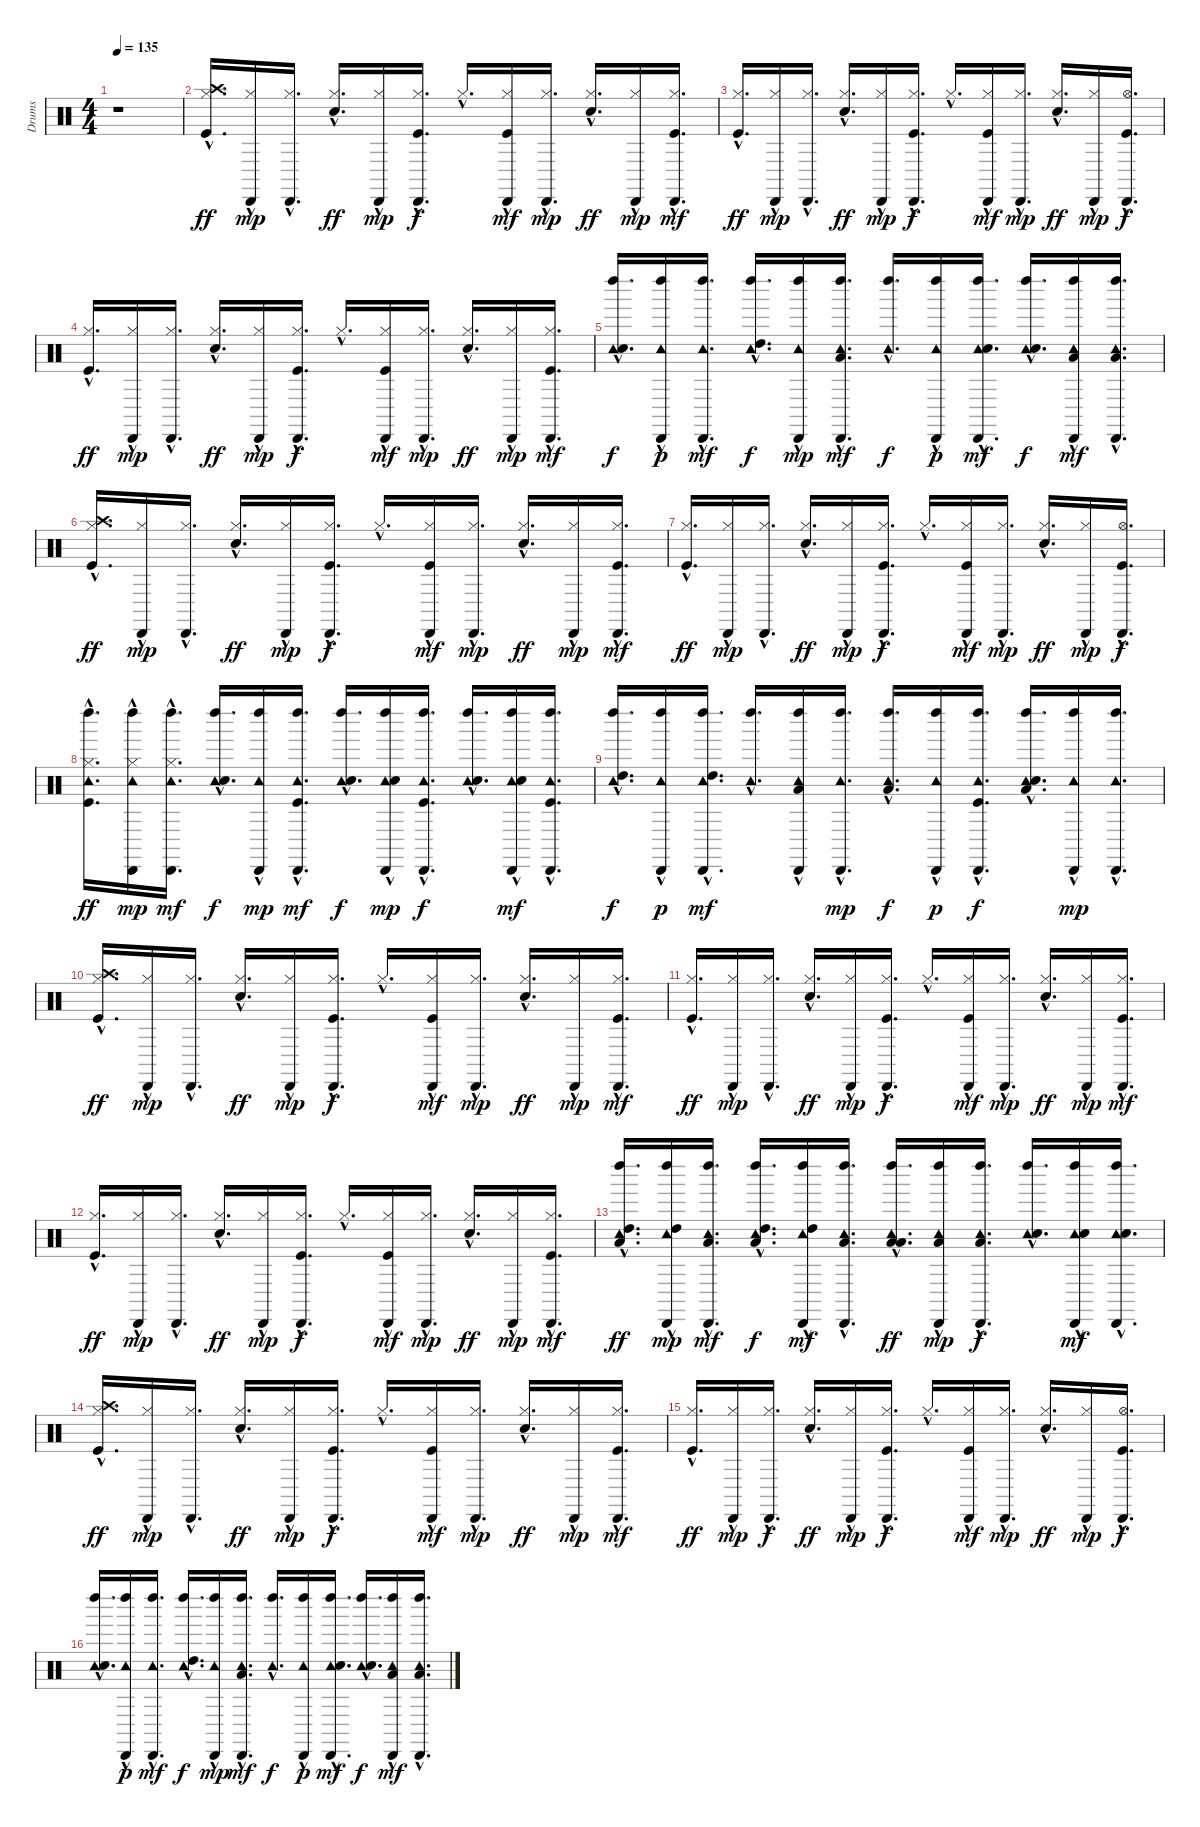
\track ("Drums" "Drums") {instrument percussion}
\staff {score}
\articulation defaults
\ts (4 4)
\tempo 135
\clef neutral
\ks c
r.1{dy ff} |
("Crash high (hit)"{hac} "Hi-Hat (closed)"{hac} "Kick (hit)"{hac}).16{d} ("Cabasa (hit)"{hac} "Hi-Hat (closed)"{hac}).16{dy mp} ("Cabasa (hit)"{hac} "Hi-Hat (closed)"{hac}).16{d} ("Hi-Hat (closed)"{hac} "Snare (hit) 2"{hac}).16{d dy ff} ("Cabasa (hit)"{hac} "Hi-Hat (closed)"{hac}).16{dy mp} ("Cabasa (hit)"{hac} "Hi-Hat (closed)"{hac} "Kick (hit)"{hac}).16{d dy f} "Hi-Hat (closed)"{hac}.16{d} ("Cabasa (hit)"{hac} "Hi-Hat (closed)"{hac} "Kick (hit)"{hac}).16{dy mf} ("Cabasa (hit)"{hac} "Hi-Hat (closed)"{hac}).16{d dy mp} ("Hi-Hat (closed)"{hac} "Snare (hit) 2"{hac}).16{d dy ff} ("Cabasa (hit)"{hac} "Hi-Hat (closed)"{hac}).16{dy mp} ("Cabasa (hit)"{hac} "Hi-Hat (closed)"{hac} "Kick (hit)"{hac}).16{d dy mf} |
("Hi-Hat (closed)"{hac} "Kick (hit)"{hac}).16{d dy ff} ("Cabasa (hit)"{hac} "Hi-Hat (closed)"{hac}).16{dy mp} ("Cabasa (hit)"{hac} "Hi-Hat (closed)"{hac}).16{d} ("Hi-Hat (closed)"{hac} "Snare (hit) 2"{hac}).16{d dy ff} ("Cabasa (hit)"{hac} "Hi-Hat (closed)"{hac}).16{dy mp} ("Cabasa (hit)"{hac} "Hi-Hat (closed)"{hac} "Kick (hit)"{hac}).16{d dy f} "Hi-Hat (closed)"{hac}.16{d} ("Cabasa (hit)"{hac} "Hi-Hat (closed)"{hac} "Kick (hit)"{hac}).16{dy mf} ("Cabasa (hit)"{hac} "Hi-Hat (closed)"{hac}).16{d dy mp} ("Hi-Hat (closed)"{hac} "Snare (hit) 2"{hac}).16{d dy ff} ("Cabasa (hit)"{hac} "Hi-Hat (closed)"{hac}).16{dy mp} ("Cabasa (hit)"{hac} "Hi-Hat (open)"{hac} "Kick (hit)"{hac}).16{d dy f} |
("Hi-Hat (closed)"{hac} "Kick (hit)"{hac}).16{d dy ff} ("Cabasa (hit)"{hac} "Hi-Hat (closed)"{hac}).16{dy mp} ("Cabasa (hit)"{hac} "Hi-Hat (closed)"{hac}).16{d} ("Hi-Hat (closed)"{hac} "Snare (hit) 2"{hac}).16{d dy ff} ("Cabasa (hit)"{hac} "Hi-Hat (closed)"{hac}).16{dy mp} ("Cabasa (hit)"{hac} "Hi-Hat (closed)"{hac} "Kick (hit)"{hac}).16{d dy f} "Hi-Hat (closed)"{hac}.16{d} ("Cabasa (hit)"{hac} "Hi-Hat (closed)"{hac} "Kick (hit)"{hac}).16{dy mf} ("Cabasa (hit)"{hac} "Hi-Hat (closed)"{hac}).16{d dy mp} ("Hi-Hat (closed)"{hac} "Snare (hit) 2"{hac}).16{d dy ff} ("Cabasa (hit)"{hac} "Hi-Hat (closed)"{hac}).16{dy mp} ("Cabasa (hit)"{hac} "Hi-Hat (closed)"{hac} "Kick (hit)"{hac}).16{d dy mf} |
("Left Maraca (hit)"{hac} "Tambourine (hit)"{hac} "Snare (hit) 2"{hac}).16{d dy f} ("Left Maraca (hit)"{hac} "Cabasa (hit)"{hac} "Tambourine (hit)"{hac}).16{dy p} ("Left Maraca (hit)"{hac} "Cabasa (hit)"{hac} "Tambourine (hit)"{hac}).16{d dy mf} ("Left Maraca (hit)"{hac} "Tambourine (hit)"{hac} "High Tom (hit)"{hac}).16{d dy f} ("Left Maraca (hit)"{hac} "Cabasa (hit)"{hac} "Tambourine (hit)"{hac}).16{dy mp} ("Left Maraca (hit)"{hac} "Cabasa (hit)"{hac} "Tambourine (hit)"{hac} "Low Tom (hit)"{hac}).16{d dy mf} ("Left Maraca (hit)"{hac} "Tambourine (hit)"{hac}).16{d dy f} ("Left Maraca (hit)"{hac} "Cabasa (hit)"{hac} "Tambourine (hit)"{hac}).16{dy p} ("Left Maraca (hit)"{hac} "Cabasa (hit)"{hac} "Tambourine (hit)"{hac} "Snare (hit) 2"{hac}).16{d dy mf} ("Left Maraca (hit)"{hac} "Tambourine (hit)"{hac} "Snare (hit) 2"{hac}).16{d dy f} ("Left Maraca (hit)"{hac} "Cabasa (hit)"{hac} "Tambourine (hit)"{hac} "Low Floor Tom (hit)"{hac}).16{dy mf} ("Left Maraca (hit)"{hac} "Cabasa (hit)"{hac} "Tambourine (hit)"{hac} "Low Floor Tom (hit)"{hac}).16{d} |
("Crash high (hit)"{hac} "Hi-Hat (closed)"{hac} "Kick (hit)"{hac}).16{d dy ff} ("Cabasa (hit)"{hac} "Hi-Hat (closed)"{hac}).16{dy mp} ("Cabasa (hit)"{hac} "Hi-Hat (closed)"{hac}).16{d} ("Hi-Hat (closed)"{hac} "Snare (hit) 2"{hac}).16{d dy ff} ("Cabasa (hit)"{hac} "Hi-Hat (closed)"{hac}).16{dy mp} ("Cabasa (hit)"{hac} "Hi-Hat (closed)"{hac} "Kick (hit)"{hac}).16{d dy f} "Hi-Hat (closed)"{hac}.16{d} ("Cabasa (hit)"{hac} "Hi-Hat (closed)"{hac} "Kick (hit)"{hac}).16{dy mf} ("Cabasa (hit)"{hac} "Hi-Hat (closed)"{hac}).16{d dy mp} ("Hi-Hat (closed)"{hac} "Snare (hit) 2"{hac}).16{d dy ff} ("Cabasa (hit)"{hac} "Hi-Hat (closed)"{hac}).16{dy mp} ("Cabasa (hit)"{hac} "Hi-Hat (closed)"{hac} "Kick (hit)"{hac}).16{d dy mf} |
("Hi-Hat (closed)"{hac} "Kick (hit)"{hac}).16{d dy ff} ("Cabasa (hit)"{hac} "Hi-Hat (closed)"{hac}).16{dy mp} ("Cabasa (hit)"{hac} "Hi-Hat (closed)"{hac}).16{d} ("Hi-Hat (closed)"{hac} "Snare (hit) 2"{hac}).16{d dy ff} ("Cabasa (hit)"{hac} "Hi-Hat (closed)"{hac}).16{dy mp} ("Cabasa (hit)"{hac} "Hi-Hat (closed)"{hac} "Kick (hit)"{hac}).16{d dy f} "Hi-Hat (closed)"{hac}.16{d} ("Cabasa (hit)"{hac} "Hi-Hat (closed)"{hac} "Kick (hit)"{hac}).16{dy mf} ("Cabasa (hit)"{hac} "Hi-Hat (closed)"{hac}).16{d dy mp} ("Hi-Hat (closed)"{hac} "Snare (hit) 2"{hac}).16{d dy ff} ("Cabasa (hit)"{hac} "Hi-Hat (closed)"{hac}).16{dy mp} ("Cabasa (hit)"{hac} "Hi-Hat (open)"{hac} "Kick (hit)"{hac}).16{d dy f} |
("Left Maraca (hit)"{hac} "Tambourine (hit)"{hac} "Hi-Hat (closed)"{hac} "Kick (hit)"{hac}).16{d dy ff} ("Left Maraca (hit)"{hac} "Cabasa (hit)"{hac} "Tambourine (hit)"{hac} "Hi-Hat (closed)"{hac}).16{dy mp} ("Left Maraca (hit)"{hac} "Cabasa (hit)"{hac} "Tambourine (hit)"{hac} "Hi-Hat (closed)"{hac}).16{d dy mf} ("Left Maraca (hit)"{hac} "Tambourine (hit)"{hac} "Snare (hit) 2"{hac}).16{d dy f} ("Left Maraca (hit)"{hac} "Cabasa (hit)"{hac} "Tambourine (hit)"{hac}).16{dy mp} ("Left Maraca (hit)"{hac} "Cabasa (hit)"{hac} "Tambourine (hit)"{hac} "Kick (hit)"{hac}).16{d dy mf} ("Left Maraca (hit)"{hac} "Tambourine (hit)"{hac} "Snare (hit) 2"{hac}).16{d dy f} ("Left Maraca (hit)"{hac} "Cabasa (hit)"{hac} "Tambourine (hit)"{hac} "Snare (hit) 2"{hac}).16{dy mp} ("Left Maraca (hit)"{hac} "Cabasa (hit)"{hac} "Tambourine (hit)"{hac} "Kick (hit)"{hac}).16{d dy f} ("Left Maraca (hit)"{hac} "Tambourine (hit)"{hac} "Snare (hit) 2"{hac}).16{d} ("Left Maraca (hit)"{hac} "Cabasa (hit)"{hac} "Tambourine (hit)"{hac} "Snare (hit) 2"{hac}).16{dy mf} ("Left Maraca (hit)"{hac} "Cabasa (hit)"{hac} "Tambourine (hit)"{hac} "Kick (hit)"{hac}).16{d} |
("Left Maraca (hit)"{hac} "Tambourine (hit)"{hac} "High Tom (hit)"{hac}).16{d dy f} ("Left Maraca (hit)"{hac} "Cabasa (hit)"{hac} "Tambourine (hit)"{hac}).16{dy p} ("Left Maraca (hit)"{hac} "Cabasa (hit)"{hac} "Tambourine (hit)"{hac} "High Tom (hit)"{hac}).16{d dy mf} ("Left Maraca (hit)"{hac} "Tambourine (hit)"{hac}).16{d} ("Left Maraca (hit)"{hac} "Cabasa (hit)"{hac} "Tambourine (hit)"{hac} "Low Tom (hit)"{hac}).16 ("Left Maraca (hit)"{hac} "Cabasa (hit)"{hac} "Tambourine (hit)"{hac}).16{d dy mp} ("Left Maraca (hit)"{hac} "Tambourine (hit)"{hac} "Low Tom (hit)"{hac}).16{d dy f} ("Left Maraca (hit)"{hac} "Cabasa (hit)"{hac} "Tambourine (hit)"{hac}).16{dy p} ("Left Maraca (hit)"{hac} "Cabasa (hit)"{hac} "Tambourine (hit)"{hac} "Kick (hit)"{hac}).16{d dy f} ("Left Maraca (hit)"{hac} "Tambourine (hit)"{hac} "Low Floor Tom (hit)"{hac} "Snare (hit) 2"{hac}).16{d} ("Left Maraca (hit)"{hac} "Cabasa (hit)"{hac} "Tambourine (hit)"{hac}).16{dy mp} ("Left Maraca (hit)"{hac} "Cabasa (hit)"{hac} "Tambourine (hit)"{hac}).16{d} |
("Crash high (hit)"{hac} "Hi-Hat (closed)"{hac} "Kick (hit)"{hac}).16{d dy ff} ("Cabasa (hit)"{hac} "Hi-Hat (closed)"{hac}).16{dy mp} ("Cabasa (hit)"{hac} "Hi-Hat (closed)"{hac}).16{d} ("Hi-Hat (closed)"{hac} "Snare (hit) 2"{hac}).16{d dy ff} ("Cabasa (hit)"{hac} "Hi-Hat (closed)"{hac}).16{dy mp} ("Cabasa (hit)"{hac} "Hi-Hat (closed)"{hac} "Kick (hit)"{hac}).16{d dy f} "Hi-Hat (closed)"{hac}.16{d} ("Cabasa (hit)"{hac} "Hi-Hat (closed)"{hac} "Kick (hit)"{hac}).16{dy mf} ("Cabasa (hit)"{hac} "Hi-Hat (closed)"{hac}).16{d dy mp} ("Hi-Hat (closed)"{hac} "Snare (hit) 2"{hac}).16{d dy ff} ("Cabasa (hit)"{hac} "Hi-Hat (closed)"{hac}).16{dy mp} ("Cabasa (hit)"{hac} "Hi-Hat (closed)"{hac} "Kick (hit)"{hac}).16{d dy mf} |
("Hi-Hat (closed)"{hac} "Kick (hit)"{hac}).16{d dy ff} ("Cabasa (hit)"{hac} "Hi-Hat (closed)"{hac}).16{dy mp} ("Cabasa (hit)"{hac} "Hi-Hat (closed)"{hac}).16{d} ("Hi-Hat (closed)"{hac} "Snare (hit) 2"{hac}).16{d dy ff} ("Cabasa (hit)"{hac} "Hi-Hat (closed)"{hac}).16{dy mp} ("Cabasa (hit)"{hac} "Hi-Hat (closed)"{hac} "Kick (hit)"{hac}).16{d dy f} "Hi-Hat (closed)"{hac}.16{d} ("Cabasa (hit)"{hac} "Hi-Hat (closed)"{hac} "Kick (hit)"{hac}).16{dy mf} ("Cabasa (hit)"{hac} "Hi-Hat (closed)"{hac}).16{d dy mp} ("Hi-Hat (closed)"{hac} "Snare (hit) 2"{hac}).16{d dy ff} ("Cabasa (hit)"{hac} "Hi-Hat (closed)"{hac}).16{dy mp} ("Cabasa (hit)"{hac} "Hi-Hat (closed)"{hac} "Kick (hit)"{hac}).16{d dy mf} |
("Hi-Hat (closed)"{hac} "Kick (hit)"{hac}).16{d dy ff} ("Cabasa (hit)"{hac} "Hi-Hat (closed)"{hac}).16{dy mp} ("Cabasa (hit)"{hac} "Hi-Hat (closed)"{hac}).16{d} ("Hi-Hat (closed)"{hac} "Snare (hit) 2"{hac}).16{d dy ff} ("Cabasa (hit)"{hac} "Hi-Hat (closed)"{hac}).16{dy mp} ("Cabasa (hit)"{hac} "Hi-Hat (closed)"{hac} "Kick (hit)"{hac}).16{d dy f} "Hi-Hat (closed)"{hac}.16{d} ("Cabasa (hit)"{hac} "Hi-Hat (closed)"{hac} "Kick (hit)"{hac}).16{dy mf} ("Cabasa (hit)"{hac} "Hi-Hat (closed)"{hac}).16{d dy mp} ("Hi-Hat (closed)"{hac} "Snare (hit) 2"{hac}).16{d dy ff} ("Cabasa (hit)"{hac} "Hi-Hat (closed)"{hac}).16{dy mp} ("Cabasa (hit)"{hac} "Hi-Hat (closed)"{hac} "Kick (hit)"{hac}).16{d dy mf} |
("Left Maraca (hit)"{hac} "Tambourine (hit)"{hac} "High Tom (hit)"{hac} "Low Tom (hit)"{hac}).16{d dy ff} ("Left Maraca (hit)"{hac} "Cabasa (hit)"{hac} "Tambourine (hit)"{hac} "High Tom (hit)"{hac}).16{dy mp} ("Left Maraca (hit)"{hac} "Cabasa (hit)"{hac} "Tambourine (hit)"{hac} "Low Tom (hit)"{hac}).16{d dy mf} ("Left Maraca (hit)"{hac} "Tambourine (hit)"{hac} "High Tom (hit)"{hac} "Low Tom (hit)"{hac}).16{d dy f} ("Left Maraca (hit)"{hac} "Cabasa (hit)"{hac} "Tambourine (hit)"{hac} "High Tom (hit)"{hac}).16{dy mf} ("Left Maraca (hit)"{hac} "Cabasa (hit)"{hac} "Tambourine (hit)"{hac} "Low Tom (hit)"{hac}).16{d} ("Left Maraca (hit)"{hac} "Tambourine (hit)"{hac} "Low Tom (hit)"{hac} "Low Floor Tom (hit)"{hac}).16{d dy ff} ("Left Maraca (hit)"{hac} "Cabasa (hit)"{hac} "Tambourine (hit)"{hac} "Low Tom (hit)"{hac}).16{dy mp} ("Left Maraca (hit)"{hac} "Cabasa (hit)"{hac} "Tambourine (hit)"{hac} "Low Floor Tom (hit)"{hac}).16{d dy f} ("Left Maraca (hit)"{hac} "Tambourine (hit)"{hac} "Snare (hit) 2"{hac}).16{d} ("Left Maraca (hit)"{hac} "Cabasa (hit)"{hac} "Tambourine (hit)"{hac} "Snare (hit) 2"{hac}).16{dy mf} ("Left Maraca (hit)"{hac} "Cabasa (hit)"{hac} "Tambourine (hit)"{hac} "Snare (hit) 2"{hac}).16{d} |
("Crash high (hit)"{hac} "Hi-Hat (closed)"{hac} "Kick (hit)"{hac}).16{d dy ff} ("Cabasa (hit)"{hac} "Hi-Hat (closed)"{hac}).16{dy mp} ("Cabasa (hit)"{hac} "Hi-Hat (closed)"{hac}).16{d} ("Hi-Hat (closed)"{hac} "Snare (hit) 2"{hac}).16{d dy ff} ("Cabasa (hit)"{hac} "Hi-Hat (closed)"{hac}).16{dy mp} ("Cabasa (hit)"{hac} "Hi-Hat (closed)"{hac} "Kick (hit)"{hac}).16{d dy f} "Hi-Hat (closed)"{hac}.16{d} ("Cabasa (hit)"{hac} "Hi-Hat (closed)"{hac} "Kick (hit)"{hac}).16{dy mf} ("Cabasa (hit)"{hac} "Hi-Hat (closed)"{hac}).16{d dy mp} ("Hi-Hat (closed)"{hac} "Snare (hit) 2"{hac}).16{d dy ff} ("Cabasa (hit)"{hac} "Hi-Hat (closed)"{hac}).16{dy mp} ("Cabasa (hit)"{hac} "Hi-Hat (closed)"{hac} "Kick (hit)"{hac}).16{d dy mf} |
("Hi-Hat (closed)"{hac} "Kick (hit)"{hac}).16{d dy ff} ("Cabasa (hit)"{hac} "Hi-Hat (closed)"{hac}).16{dy mp} ("Cabasa (hit)"{hac} "Hi-Hat (closed)"{hac}).16{d dy f} ("Hi-Hat (closed)"{hac} "Snare (hit) 2"{hac}).16{d dy ff} ("Cabasa (hit)"{hac} "Hi-Hat (closed)"{hac}).16{dy mp} ("Cabasa (hit)"{hac} "Hi-Hat (closed)"{hac} "Kick (hit)"{hac}).16{d dy f} "Hi-Hat (closed)"{hac}.16{d} ("Cabasa (hit)"{hac} "Hi-Hat (closed)"{hac} "Kick (hit)"{hac}).16{dy mf} ("Cabasa (hit)"{hac} "Hi-Hat (closed)"{hac}).16{d dy mp} ("Hi-Hat (closed)"{hac} "Snare (hit) 2"{hac}).16{d dy ff} ("Cabasa (hit)"{hac} "Hi-Hat (closed)"{hac}).16{dy mp} ("Cabasa (hit)"{hac} "Hi-Hat (open)"{hac} "Kick (hit)"{hac}).16{d dy f} |
("Left Maraca (hit)"{hac} "Tambourine (hit)"{hac} "Snare (hit) 2"{hac}).16{d} ("Left Maraca (hit)"{hac} "Cabasa (hit)"{hac} "Tambourine (hit)"{hac}).16{dy p} ("Left Maraca (hit)"{hac} "Cabasa (hit)"{hac} "Tambourine (hit)"{hac}).16{d dy mf} ("Left Maraca (hit)"{hac} "Tambourine (hit)"{hac} "High Tom (hit)"{hac}).16{d dy f} ("Left Maraca (hit)"{hac} "Cabasa (hit)"{hac} "Tambourine (hit)"{hac}).16{dy mp} ("Left Maraca (hit)"{hac} "Cabasa (hit)"{hac} "Tambourine (hit)"{hac} "Low Tom (hit)"{hac}).16{d dy mf} ("Left Maraca (hit)"{hac} "Tambourine (hit)"{hac}).16{d dy f} ("Left Maraca (hit)"{hac} "Cabasa (hit)"{hac} "Tambourine (hit)"{hac}).16{dy p} ("Left Maraca (hit)"{hac} "Cabasa (hit)"{hac} "Tambourine (hit)"{hac} "Snare (hit) 2"{hac}).16{d dy mf} ("Left Maraca (hit)"{hac} "Tambourine (hit)"{hac} "Snare (hit) 2"{hac}).16{d dy f} ("Left Maraca (hit)"{hac} "Cabasa (hit)"{hac} "Tambourine (hit)"{hac} "Low Floor Tom (hit)"{hac}).16{dy mf} ("Left Maraca (hit)"{hac} "Cabasa (hit)"{hac} "Tambourine (hit)"{hac} "Low Floor Tom (hit)"{hac}).16{d}
